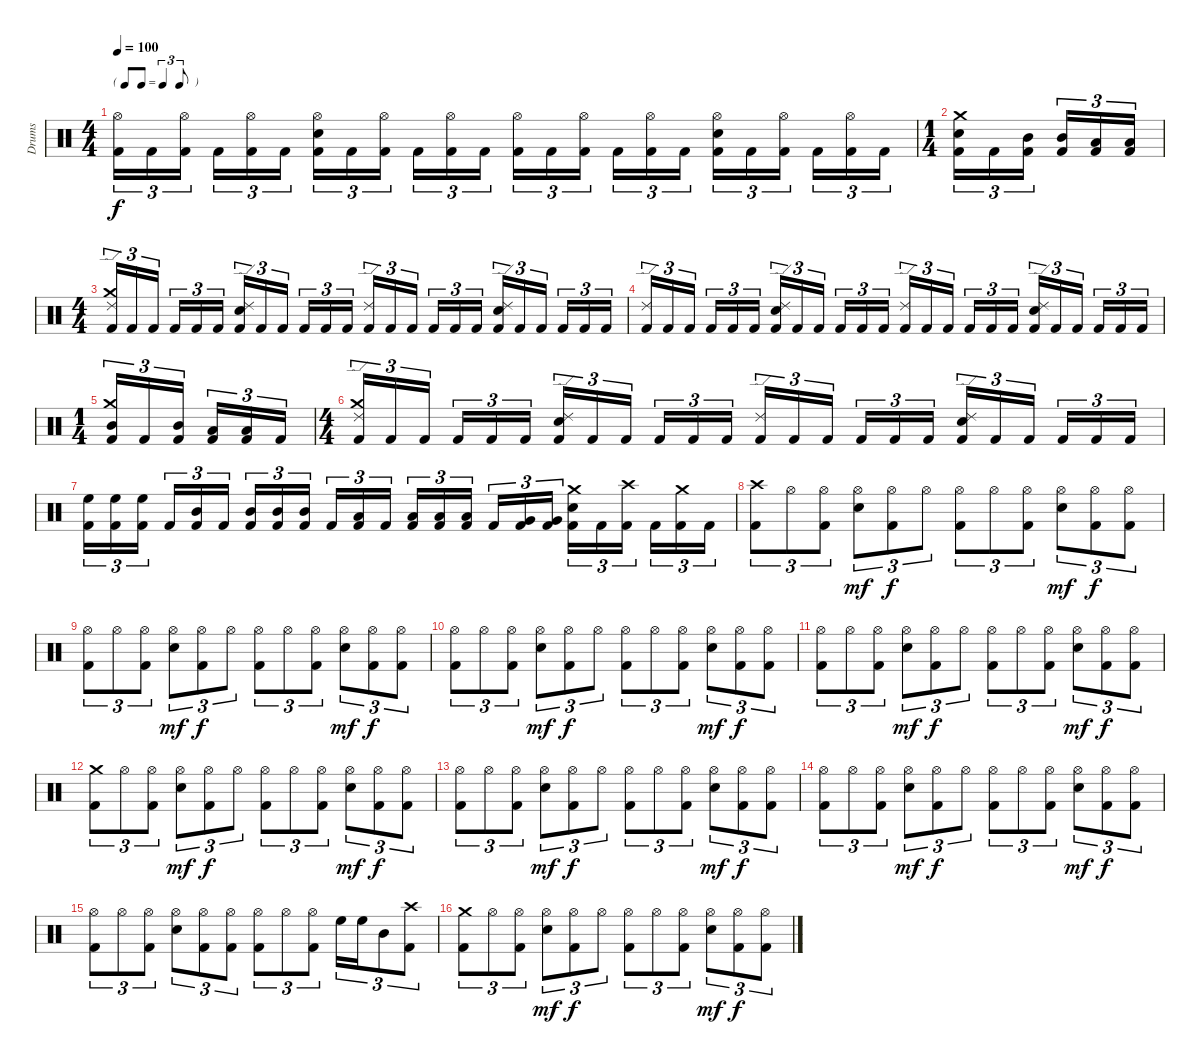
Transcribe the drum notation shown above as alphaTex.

\track ("Drums" "Drums") {instrument percussion}
\staff {score}
\articulation defaults
\ts (4 4)
\tf triplet8th
\tempo 100
\clef neutral
\ks c
("Hi-Hat (open)" "Kick (hit) 2").16{tu (3 2) dy f} "Kick (hit) 2".16{tu (3 2)} ("Hi-Hat (open)" "Kick (hit) 2").16{tu (3 2) beam splitsecondary} "Kick (hit) 2".16{tu (3 2)} ("Hi-Hat (open)" "Kick (hit) 2").16{tu (3 2)} "Kick (hit) 2".16{tu (3 2)} ("Hi-Hat (open)" "Snare (hit) 2" "Kick (hit) 2").16{tu (3 2)} "Kick (hit) 2".16{tu (3 2)} ("Hi-Hat (open)" "Kick (hit) 2").16{tu (3 2) beam splitsecondary} "Kick (hit) 2".16{tu (3 2)} ("Hi-Hat (open)" "Kick (hit) 2").16{tu (3 2)} "Kick (hit) 2".16{tu (3 2)} ("Hi-Hat (open)" "Kick (hit) 2").16{tu (3 2)} "Kick (hit) 2".16{tu (3 2)} ("Hi-Hat (open)" "Kick (hit) 2").16{tu (3 2) beam splitsecondary} "Kick (hit) 2".16{tu (3 2)} ("Hi-Hat (open)" "Kick (hit) 2").16{tu (3 2)} "Kick (hit) 2".16{tu (3 2)} ("Hi-Hat (open)" "Snare (hit) 2" "Kick (hit) 2").16{tu (3 2)} "Kick (hit) 2".16{tu (3 2)} ("Hi-Hat (open)" "Kick (hit) 2").16{tu (3 2) beam splitsecondary} "Kick (hit) 2".16{tu (3 2)} ("Hi-Hat (open)" "Kick (hit) 2").16{tu (3 2)} "Kick (hit) 2".16{tu (3 2)} |
\ts (1 4)
("Crash medium (hit)" "Snare (hit) 2" "Kick (hit) 2").16{tu (3 2)} "Kick (hit) 2".16{tu (3 2)} ("Mid Tom (hit)" "Kick (hit) 2").16{tu (3 2) beam splitsecondary} ("Mid Tom (hit)" "Kick (hit) 2").16{tu (3 2)} ("Low Tom (hit)" "Kick (hit) 2").16{tu (3 2)} ("Low Tom (hit)" "Kick (hit) 2").16{tu (3 2)} |
\ts (4 4)
("Crash medium (hit)" "Ride (edge) 2" "Kick (hit) 2").16{tu (3 2)} "Kick (hit) 2".16{tu (3 2)} "Kick (hit) 2".16{tu (3 2) beam splitsecondary} "Kick (hit) 2".16{tu (3 2)} "Kick (hit) 2".16{tu (3 2)} "Kick (hit) 2".16{tu (3 2)} ("Ride (edge) 2" "Snare (hit) 2" "Kick (hit) 2").16{tu (3 2)} "Kick (hit) 2".16{tu (3 2)} "Kick (hit) 2".16{tu (3 2) beam splitsecondary} "Kick (hit) 2".16{tu (3 2)} "Kick (hit) 2".16{tu (3 2)} "Kick (hit) 2".16{tu (3 2)} ("Ride (edge) 2" "Kick (hit) 2").16{tu (3 2)} "Kick (hit) 2".16{tu (3 2)} "Kick (hit) 2".16{tu (3 2) beam splitsecondary} "Kick (hit) 2".16{tu (3 2)} "Kick (hit) 2".16{tu (3 2)} "Kick (hit) 2".16{tu (3 2)} ("Ride (edge) 2" "Snare (hit) 2" "Kick (hit) 2").16{tu (3 2)} "Kick (hit) 2".16{tu (3 2)} "Kick (hit) 2".16{tu (3 2) beam splitsecondary} "Kick (hit) 2".16{tu (3 2)} "Kick (hit) 2".16{tu (3 2)} "Kick (hit) 2".16{tu (3 2)} |
("Ride (edge) 2" "Kick (hit) 2").16{tu (3 2)} "Kick (hit) 2".16{tu (3 2)} "Kick (hit) 2".16{tu (3 2) beam splitsecondary} "Kick (hit) 2".16{tu (3 2)} "Kick (hit) 2".16{tu (3 2)} "Kick (hit) 2".16{tu (3 2)} ("Ride (edge) 2" "Snare (hit) 2" "Kick (hit) 2").16{tu (3 2)} "Kick (hit) 2".16{tu (3 2)} "Kick (hit) 2".16{tu (3 2) beam splitsecondary} "Kick (hit) 2".16{tu (3 2)} "Kick (hit) 2".16{tu (3 2)} "Kick (hit) 2".16{tu (3 2)} ("Ride (edge) 2" "Kick (hit) 2").16{tu (3 2)} "Kick (hit) 2".16{tu (3 2)} "Kick (hit) 2".16{tu (3 2) beam splitsecondary} "Kick (hit) 2".16{tu (3 2)} "Kick (hit) 2".16{tu (3 2)} "Kick (hit) 2".16{tu (3 2)} ("Ride (edge) 2" "Snare (hit) 2" "Kick (hit) 2").16{tu (3 2)} "Kick (hit) 2".16{tu (3 2)} "Kick (hit) 2".16{tu (3 2) beam splitsecondary} "Kick (hit) 2".16{tu (3 2)} "Kick (hit) 2".16{tu (3 2)} "Kick (hit) 2".16{tu (3 2)} |
\ts (1 4)
("Crash medium (hit)" "Mid Tom (hit)" "Kick (hit) 2").16{tu (3 2)} "Kick (hit) 2".16{tu (3 2)} ("Mid Tom (hit)" "Kick (hit) 2").16{tu (3 2) beam splitsecondary} ("Low Tom (hit)" "Kick (hit) 2").16{tu (3 2)} ("Low Tom (hit)" "Kick (hit) 2").16{tu (3 2)} "Kick (hit) 2".16{tu (3 2)} |
\ts (4 4)
("Crash medium (hit)" "Ride (edge) 2" "Kick (hit) 2").16{tu (3 2)} "Kick (hit) 2".16{tu (3 2)} "Kick (hit) 2".16{tu (3 2) beam splitsecondary} "Kick (hit) 2".16{tu (3 2)} "Kick (hit) 2".16{tu (3 2)} "Kick (hit) 2".16{tu (3 2)} ("Ride (edge) 2" "Snare (hit) 2" "Kick (hit) 2").16{tu (3 2)} "Kick (hit) 2".16{tu (3 2)} "Kick (hit) 2".16{tu (3 2) beam splitsecondary} "Kick (hit) 2".16{tu (3 2)} "Kick (hit) 2".16{tu (3 2)} "Kick (hit) 2".16{tu (3 2)} ("Ride (edge) 2" "Kick (hit) 2").16{tu (3 2)} "Kick (hit) 2".16{tu (3 2)} "Kick (hit) 2".16{tu (3 2) beam splitsecondary} "Kick (hit) 2".16{tu (3 2)} "Kick (hit) 2".16{tu (3 2)} "Kick (hit) 2".16{tu (3 2)} ("Ride (edge) 2" "Snare (hit) 2" "Kick (hit) 2").16{tu (3 2)} "Kick (hit) 2".16{tu (3 2)} "Kick (hit) 2".16{tu (3 2) beam splitsecondary} "Kick (hit) 2".16{tu (3 2)} "Kick (hit) 2".16{tu (3 2)} "Kick (hit) 2".16{tu (3 2)} |
("High Floor Tom (hit)" "Kick (hit) 2").16{tu (3 2)} ("High Floor Tom (hit)" "Kick (hit) 2").16{tu (3 2)} ("High Floor Tom (hit)" "Kick (hit) 2").16{tu (3 2) beam splitsecondary} "Kick (hit) 2".16{tu (3 2)} ("Mid Tom (hit)" "Kick (hit) 2").16{tu (3 2)} "Kick (hit) 2".16{tu (3 2)} ("Mid Tom (hit)" "Kick (hit) 2").16{tu (3 2)} ("Mid Tom (hit)" "Kick (hit) 2").16{tu (3 2)} ("Mid Tom (hit)" "Kick (hit) 2").16{tu (3 2) beam splitsecondary} "Kick (hit) 2".16{tu (3 2)} ("Low Tom (hit)" "Kick (hit) 2").16{tu (3 2)} "Kick (hit) 2".16{tu (3 2)} ("Low Tom (hit)" "Kick (hit) 2").16{tu (3 2)} ("Low Tom (hit)" "Kick (hit) 2").16{tu (3 2)} ("Low Tom (hit)" "Kick (hit) 2").16{tu (3 2) beam splitsecondary} "Kick (hit) 2".16{tu (3 2)} ("Very Low Tom (hit)" "Kick (hit) 2").16{tu (3 2)} ("Very Low Tom (hit)" "Kick (hit) 2").16{tu (3 2)} ("Crash medium (hit)" "Snare (hit) 2" "Kick (hit) 2").16{tu (3 2)} "Kick (hit) 2".16{tu (3 2)} ("Crash high (hit)" "Kick (hit) 2").16{tu (3 2) beam splitsecondary} "Kick (hit) 2".16{tu (3 2)} ("Crash medium (hit)" "Kick (hit) 2").16{tu (3 2)} "Kick (hit) 2".16{tu (3 2)} |
("Crash high (hit)" "Kick (hit) 2").8{tu (3 2)} "Hi-Hat (open)".8{tu (3 2)} ("Hi-Hat (open)" "Kick (hit) 2").8{tu (3 2)} ("Hi-Hat (open)" "Snare (hit) 2").8{tu (3 2) dy mf} ("Hi-Hat (open)" "Kick (hit) 2").8{tu (3 2) dy f} "Hi-Hat (open)".8{tu (3 2)} ("Hi-Hat (open)" "Kick (hit) 2").8{tu (3 2)} "Hi-Hat (open)".8{tu (3 2)} ("Hi-Hat (open)" "Kick (hit) 2").8{tu (3 2)} ("Hi-Hat (open)" "Snare (hit) 2").8{tu (3 2) dy mf} ("Hi-Hat (open)" "Kick (hit) 2").8{tu (3 2) dy f} ("Hi-Hat (open)" "Kick (hit) 2").8{tu (3 2)} |
("Hi-Hat (open)" "Kick (hit) 2").8{tu (3 2)} "Hi-Hat (open)".8{tu (3 2)} ("Hi-Hat (open)" "Kick (hit) 2").8{tu (3 2)} ("Hi-Hat (open)" "Snare (hit) 2").8{tu (3 2) dy mf} ("Hi-Hat (open)" "Kick (hit) 2").8{tu (3 2) dy f} "Hi-Hat (open)".8{tu (3 2)} ("Hi-Hat (open)" "Kick (hit) 2").8{tu (3 2)} "Hi-Hat (open)".8{tu (3 2)} ("Hi-Hat (open)" "Kick (hit) 2").8{tu (3 2)} ("Hi-Hat (open)" "Snare (hit) 2").8{tu (3 2) dy mf} ("Hi-Hat (open)" "Kick (hit) 2").8{tu (3 2) dy f} ("Hi-Hat (open)" "Kick (hit) 2").8{tu (3 2)} |
("Hi-Hat (open)" "Kick (hit) 2").8{tu (3 2)} "Hi-Hat (open)".8{tu (3 2)} ("Hi-Hat (open)" "Kick (hit) 2").8{tu (3 2)} ("Hi-Hat (open)" "Snare (hit) 2").8{tu (3 2) dy mf} ("Hi-Hat (open)" "Kick (hit) 2").8{tu (3 2) dy f} "Hi-Hat (open)".8{tu (3 2)} ("Hi-Hat (open)" "Kick (hit) 2").8{tu (3 2)} "Hi-Hat (open)".8{tu (3 2)} ("Hi-Hat (open)" "Kick (hit) 2").8{tu (3 2)} ("Hi-Hat (open)" "Snare (hit) 2").8{tu (3 2) dy mf} ("Hi-Hat (open)" "Kick (hit) 2").8{tu (3 2) dy f} ("Hi-Hat (open)" "Kick (hit) 2").8{tu (3 2)} |
("Hi-Hat (open)" "Kick (hit) 2").8{tu (3 2)} "Hi-Hat (open)".8{tu (3 2)} ("Hi-Hat (open)" "Kick (hit) 2").8{tu (3 2)} ("Hi-Hat (open)" "Snare (hit) 2").8{tu (3 2) dy mf} ("Hi-Hat (open)" "Kick (hit) 2").8{tu (3 2) dy f} "Hi-Hat (open)".8{tu (3 2)} ("Hi-Hat (open)" "Kick (hit) 2").8{tu (3 2)} "Hi-Hat (open)".8{tu (3 2)} ("Hi-Hat (open)" "Kick (hit) 2").8{tu (3 2)} ("Hi-Hat (open)" "Snare (hit) 2").8{tu (3 2) dy mf} ("Hi-Hat (open)" "Kick (hit) 2").8{tu (3 2) dy f} ("Hi-Hat (open)" "Kick (hit) 2").8{tu (3 2)} |
("Crash medium (hit)" "Kick (hit) 2").8{tu (3 2)} "Hi-Hat (open)".8{tu (3 2)} ("Hi-Hat (open)" "Kick (hit) 2").8{tu (3 2)} ("Hi-Hat (open)" "Snare (hit) 2").8{tu (3 2) dy mf} ("Hi-Hat (open)" "Kick (hit) 2").8{tu (3 2) dy f} "Hi-Hat (open)".8{tu (3 2)} ("Hi-Hat (open)" "Kick (hit) 2").8{tu (3 2)} "Hi-Hat (open)".8{tu (3 2)} ("Hi-Hat (open)" "Kick (hit) 2").8{tu (3 2)} ("Hi-Hat (open)" "Snare (hit) 2").8{tu (3 2) dy mf} ("Hi-Hat (open)" "Kick (hit) 2").8{tu (3 2) dy f} ("Hi-Hat (open)" "Kick (hit) 2").8{tu (3 2)} |
("Hi-Hat (open)" "Kick (hit) 2").8{tu (3 2)} "Hi-Hat (open)".8{tu (3 2)} ("Hi-Hat (open)" "Kick (hit) 2").8{tu (3 2)} ("Hi-Hat (open)" "Snare (hit) 2").8{tu (3 2) dy mf} ("Hi-Hat (open)" "Kick (hit) 2").8{tu (3 2) dy f} "Hi-Hat (open)".8{tu (3 2)} ("Hi-Hat (open)" "Kick (hit) 2").8{tu (3 2)} "Hi-Hat (open)".8{tu (3 2)} ("Hi-Hat (open)" "Kick (hit) 2").8{tu (3 2)} ("Hi-Hat (open)" "Snare (hit) 2").8{tu (3 2) dy mf} ("Hi-Hat (open)" "Kick (hit) 2").8{tu (3 2) dy f} ("Hi-Hat (open)" "Kick (hit) 2").8{tu (3 2)} |
("Hi-Hat (open)" "Kick (hit) 2").8{tu (3 2)} "Hi-Hat (open)".8{tu (3 2)} ("Hi-Hat (open)" "Kick (hit) 2").8{tu (3 2)} ("Hi-Hat (open)" "Snare (hit) 2").8{tu (3 2) dy mf} ("Hi-Hat (open)" "Kick (hit) 2").8{tu (3 2) dy f} "Hi-Hat (open)".8{tu (3 2)} ("Hi-Hat (open)" "Kick (hit) 2").8{tu (3 2)} "Hi-Hat (open)".8{tu (3 2)} ("Hi-Hat (open)" "Kick (hit) 2").8{tu (3 2)} ("Hi-Hat (open)" "Snare (hit) 2").8{tu (3 2) dy mf} ("Hi-Hat (open)" "Kick (hit) 2").8{tu (3 2) dy f} ("Hi-Hat (open)" "Kick (hit) 2").8{tu (3 2)} |
("Hi-Hat (open)" "Kick (hit) 2").8{tu (3 2)} "Hi-Hat (open)".8{tu (3 2)} ("Hi-Hat (open)" "Kick (hit) 2").8{tu (3 2)} ("Hi-Hat (open)" "Snare (hit) 2").8{tu (3 2)} ("Hi-Hat (open)" "Kick (hit) 2").8{tu (3 2)} ("Hi-Hat (open)" "Kick (hit) 2").8{tu (3 2)} ("Hi-Hat (open)" "Kick (hit) 2").8{tu (3 2)} "Hi-Hat (open)".8{tu (3 2)} ("Hi-Hat (open)" "Kick (hit) 2").8{tu (3 2)} "High Floor Tom (hit)".16{tu (3 2)} "High Floor Tom (hit)".16{tu (3 2)} "Mid Tom (hit)".8{tu (3 2)} ("Crash high (hit)" "Kick (hit) 2").8{tu (3 2)} |
("Crash medium (hit)" "Kick (hit) 2").8{tu (3 2)} "Hi-Hat (open)".8{tu (3 2)} ("Hi-Hat (open)" "Kick (hit) 2").8{tu (3 2)} ("Hi-Hat (open)" "Snare (hit) 2").8{tu (3 2) dy mf} ("Hi-Hat (open)" "Kick (hit) 2").8{tu (3 2) dy f} "Hi-Hat (open)".8{tu (3 2)} ("Hi-Hat (open)" "Kick (hit) 2").8{tu (3 2)} "Hi-Hat (open)".8{tu (3 2)} ("Hi-Hat (open)" "Kick (hit) 2").8{tu (3 2)} ("Hi-Hat (open)" "Snare (hit) 2").8{tu (3 2) dy mf} ("Hi-Hat (open)" "Kick (hit) 2").8{tu (3 2) dy f} ("Hi-Hat (open)" "Kick (hit) 2").8{tu (3 2)}
